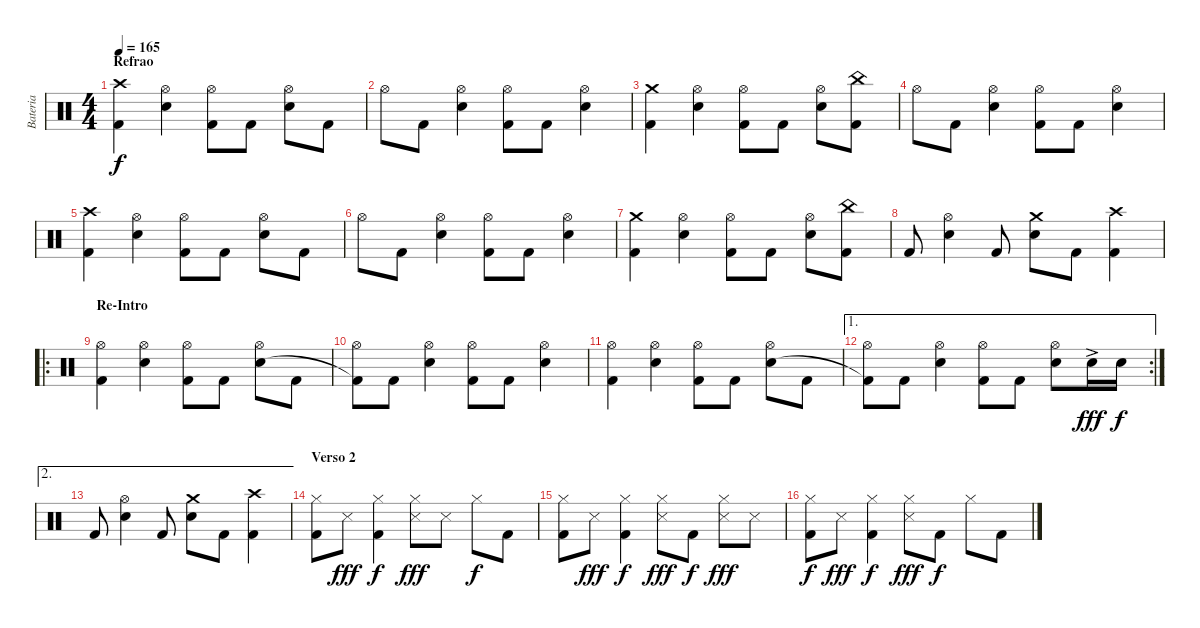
\track ("Bateria" "Bateria") {instrument percussion}
\staff {score}
\articulation defaults
\ts (4 4)
\section ("" "Refrao")
\tempo 165
\clef neutral
\ks c
("Crash high (hit)" "Kick (hit) 2").4{dy f} ("Hi-Hat (open)" "Electric Snare (hit)").4 ("Hi-Hat (open)" "Kick (hit) 2").8 "Kick (hit) 2".8 ("Hi-Hat (open)" "Electric Snare (hit)").8 "Kick (hit) 2".8 |
"Hi-Hat (open)".8 "Kick (hit) 2".8 ("Hi-Hat (open)" "Electric Snare (hit)").4 ("Hi-Hat (open)" "Kick (hit) 2").8 "Kick (hit) 2".8 ("Hi-Hat (open)" "Electric Snare (hit)").4 |
("Crash medium (hit)" "Kick (hit) 2").4 ("Hi-Hat (open)" "Electric Snare (hit)").4 ("Hi-Hat (open)" "Kick (hit) 2").8 "Kick (hit) 2".8 ("Hi-Hat (open)" "Electric Snare (hit)").8 ("China (hit)" "Kick (hit) 2").8 |
"Hi-Hat (open)".8 "Kick (hit) 2".8 ("Hi-Hat (open)" "Electric Snare (hit)").4 ("Hi-Hat (open)" "Kick (hit) 2").8 "Kick (hit) 2".8 ("Hi-Hat (open)" "Electric Snare (hit)").4 |
("Crash high (hit)" "Kick (hit) 2").4 ("Hi-Hat (open)" "Electric Snare (hit)").4 ("Hi-Hat (open)" "Kick (hit) 2").8 "Kick (hit) 2".8 ("Hi-Hat (open)" "Electric Snare (hit)").8 "Kick (hit) 2".8 |
"Hi-Hat (open)".8 "Kick (hit) 2".8 ("Hi-Hat (open)" "Electric Snare (hit)").4 ("Hi-Hat (open)" "Kick (hit) 2").8 "Kick (hit) 2".8 ("Hi-Hat (open)" "Electric Snare (hit)").4 |
("Crash medium (hit)" "Kick (hit) 2").4 ("Hi-Hat (open)" "Electric Snare (hit)").4 ("Hi-Hat (open)" "Kick (hit) 2").8 "Kick (hit) 2".8 ("Hi-Hat (open)" "Electric Snare (hit)").8 ("China (hit)" "Kick (hit) 2").8 |
"Kick (hit) 2".8 ("Hi-Hat (open)" "Electric Snare (hit)").4 "Kick (hit) 2".8 ("Crash medium (hit)" "Electric Snare (hit)").8 "Kick (hit) 2".8 ("Crash high (hit)" "Kick (hit) 2").4 |
\ro
\section ("" "Re-Intro")
("Hi-Hat (open)" "Kick (hit) 2").4 ("Hi-Hat (open)" "Snare (hit) 2").4 ("Hi-Hat (open)" "Kick (hit) 2").8 "Kick (hit) 2".8 ("Hi-Hat (open)" "Snare (hit) 2").8 "Kick (hit) 2".8 |
("Hi-Hat (open)" "Kick (hit) 2"{t}).8 "Kick (hit) 2".8 ("Hi-Hat (open)" "Snare (hit) 2").4 ("Hi-Hat (open)" "Kick (hit) 2").8 "Kick (hit) 2".8 ("Hi-Hat (open)" "Snare (hit) 2").4 |
("Hi-Hat (open)" "Kick (hit) 2").4 ("Hi-Hat (open)" "Snare (hit) 2").4 ("Hi-Hat (open)" "Kick (hit) 2").8 "Kick (hit) 2".8 ("Hi-Hat (open)" "Snare (hit) 2").8 "Kick (hit) 2".8 |
\ae 1
\rc 2
("Hi-Hat (open)" "Kick (hit) 2"{t}).8 "Kick (hit) 2".8 ("Hi-Hat (open)" "Snare (hit) 2").4 ("Hi-Hat (open)" "Kick (hit) 2").8 "Kick (hit) 2".8 ("Hi-Hat (open)" "Snare (hit) 2").8 "Electric Snare (hit)"{ac}.16{dy fff} "Electric Snare (hit)".16{dy f} |
\ae 2 "Kick (hit) 2".8
("Hi-Hat (open)" "Electric Snare (hit)").4 "Kick (hit) 2".8 ("Crash medium (hit)" "Electric Snare (hit)").8 "Kick (hit) 2".8 ("Crash high (hit)" "Kick (hit) 2").4 |
\section ("" "Verso 2")
("Hi-Hat (closed)" "Kick (hit) 2").8 "Snare (side stick) 3".8{dy fff} ("Hi-Hat (closed)" "Kick (hit) 2").4{dy f} ("Hi-Hat (closed)" "Snare (side stick) 3").8{dy fff} "Snare (side stick) 3".8 "Hi-Hat (closed)".8{dy f} "Kick (hit) 2".8 |
("Hi-Hat (closed)" "Kick (hit) 2").8 "Snare (side stick) 3".8{dy fff} ("Hi-Hat (closed)" "Kick (hit) 2").4{dy f} ("Hi-Hat (closed)" "Snare (side stick) 3").8{dy fff} "Kick (hit) 2".8{dy f} ("Hi-Hat (closed)" "Snare (side stick) 3").8{dy fff} "Snare (side stick) 3".8 |
("Hi-Hat (closed)" "Kick (hit) 2").8{dy f} "Snare (side stick) 3".8{dy fff} ("Hi-Hat (closed)" "Kick (hit) 2").4{dy f} ("Hi-Hat (closed)" "Snare (side stick) 3").8{dy fff} "Kick (hit) 2".8{dy f} "Hi-Hat (closed)".8 "Kick (hit) 2".8
